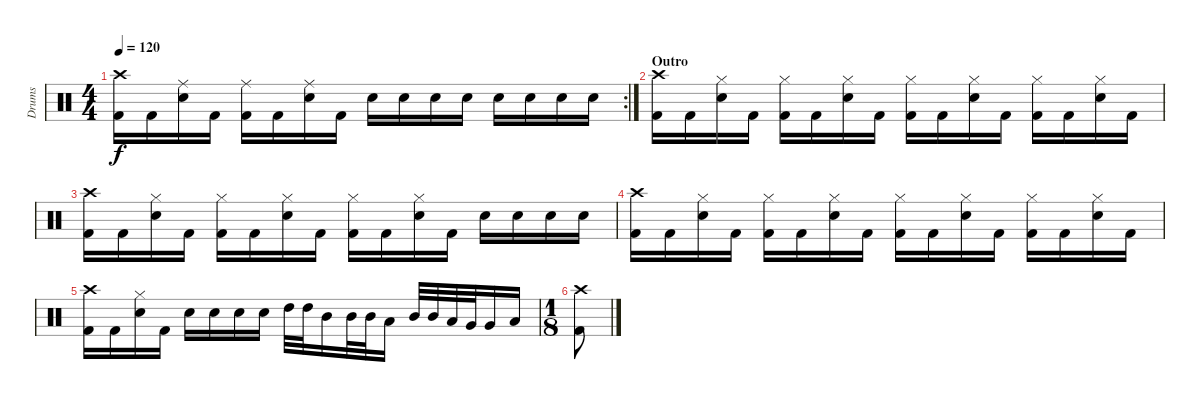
\track ("Drums" "Drums") {instrument percussion}
\staff {score}
\articulation defaults
\rc 2
\ts (4 4)
\tempo 120
\clef neutral
\ks c
("Kick (hit) 2" "Crash high (hit)").16{dy f} "Kick (hit) 2".16 ("Electric Snare (hit)" "Ride (middle)").16 "Kick (hit) 2".16 ("Kick (hit) 2" "Ride (middle)").16 "Kick (hit) 2".16 ("Electric Snare (hit)" "Ride (middle)").16 "Kick (hit) 2".16 "Electric Snare (hit)".16 "Electric Snare (hit)".16 "Electric Snare (hit)".16 "Electric Snare (hit)".16 "Electric Snare (hit)".16 "Electric Snare (hit)".16 "Electric Snare (hit)".16 "Electric Snare (hit)".16 |
\section ("" "Outro")
("Kick (hit) 2" "Crash high (hit)").16 "Kick (hit) 2".16 ("Electric Snare (hit)" "Hi-Hat (closed)").16 "Kick (hit) 2".16 ("Kick (hit) 2" "Hi-Hat (closed)").16 "Kick (hit) 2".16 ("Electric Snare (hit)" "Hi-Hat (closed)").16 "Kick (hit) 2".16 ("Kick (hit) 2" "Hi-Hat (closed)").16 "Kick (hit) 2".16 ("Electric Snare (hit)" "Hi-Hat (closed)").16 "Kick (hit) 2".16 ("Kick (hit) 2" "Hi-Hat (closed)").16 "Kick (hit) 2".16 ("Electric Snare (hit)" "Hi-Hat (closed)").16 "Kick (hit) 2".16 |
("Kick (hit) 2" "Crash high (hit)").16 "Kick (hit) 2".16 ("Electric Snare (hit)" "Hi-Hat (closed)").16 "Kick (hit) 2".16 ("Kick (hit) 2" "Hi-Hat (closed)").16 "Kick (hit) 2".16 ("Electric Snare (hit)" "Hi-Hat (closed)").16 "Kick (hit) 2".16 ("Kick (hit) 2" "Hi-Hat (closed)").16 "Kick (hit) 2".16 ("Electric Snare (hit)" "Hi-Hat (closed)").16 "Kick (hit) 2".16 "Electric Snare (hit)".16 "Electric Snare (hit)".16 "Electric Snare (hit)".16 "Electric Snare (hit)".16 |
("Kick (hit) 2" "Crash high (hit)").16 "Kick (hit) 2".16 ("Electric Snare (hit)" "Hi-Hat (closed)").16 "Kick (hit) 2".16 ("Kick (hit) 2" "Hi-Hat (closed)").16 "Kick (hit) 2".16 ("Electric Snare (hit)" "Hi-Hat (closed)").16 "Kick (hit) 2".16 ("Kick (hit) 2" "Hi-Hat (closed)").16 "Kick (hit) 2".16 ("Electric Snare (hit)" "Hi-Hat (closed)").16 "Kick (hit) 2".16 ("Kick (hit) 2" "Hi-Hat (closed)").16 "Kick (hit) 2".16 ("Electric Snare (hit)" "Hi-Hat (closed)").16 "Kick (hit) 2".16 |
("Kick (hit) 2" "Crash high (hit)").16 "Kick (hit) 2".16 ("Electric Snare (hit)" "Hi-Hat (closed)").16 "Kick (hit) 2".16 "Electric Snare (hit)".16 "Electric Snare (hit)".16 "Electric Snare (hit)".16 "Electric Snare (hit)".16 "High Tom (hit)".32 "High Tom (hit)".32 "Mid Tom (hit)".16 "Mid Tom (hit)".32 "Mid Tom (hit)".32 "Low Tom (hit)".16 "Mid Tom (hit)".32 "Mid Tom (hit)".32 "Low Tom (hit)".32 "Very Low Tom (hit)".32 "Very Low Tom (hit)".16 "Low Floor Tom (hit)".16 |
\ts (1 8)
("Crash high (hit)" "Kick (hit) 2").8
